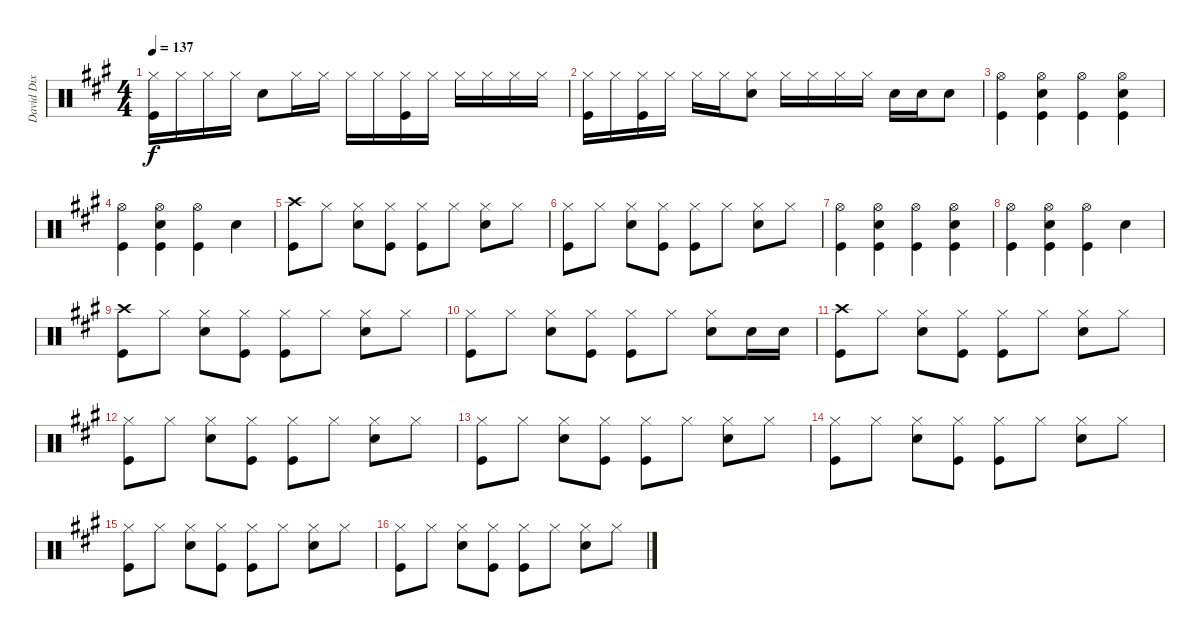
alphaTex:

\track ("David Dix Drums" "David Dix ") {instrument percussion}
\staff {score}
\articulation defaults
\ts (4 4)
\tempo 137
\clef neutral
\ks a
("Hi-Hat (closed)" "Kick (hit)").16{dy f} "Hi-Hat (closed)".16 "Hi-Hat (closed)".16 "Hi-Hat (closed)".16 "Snare (hit) 2".8 "Hi-Hat (closed)".16 "Hi-Hat (closed)".16 "Hi-Hat (closed)".16 "Hi-Hat (closed)".16 ("Hi-Hat (closed)" "Kick (hit)").16 "Hi-Hat (closed)".16 "Hi-Hat (closed)".16 "Hi-Hat (closed)".16 "Hi-Hat (closed)".16 "Hi-Hat (closed)".16 |
("Hi-Hat (closed)" "Kick (hit)").16 "Hi-Hat (closed)".16 ("Hi-Hat (closed)" "Kick (hit)").16 "Hi-Hat (closed)".16 "Hi-Hat (closed)".16 "Hi-Hat (closed)".16 ("Hi-Hat (closed)" "Snare (hit) 2").8 "Hi-Hat (closed)".16 "Hi-Hat (closed)".16 "Hi-Hat (closed)".16 "Hi-Hat (closed)".16 "Snare (hit) 2".16 "Snare (hit) 2".16 "Snare (hit) 2".8 |
("Hi-Hat (open)" "Kick (hit)").4 ("Hi-Hat (open)" "Snare (hit) 2" "Kick (hit)").4 ("Hi-Hat (open)" "Kick (hit)").4 ("Hi-Hat (open)" "Snare (hit) 2" "Kick (hit)").4 |
("Hi-Hat (open)" "Kick (hit)").4 ("Hi-Hat (open)" "Snare (hit) 2" "Kick (hit)").4 ("Hi-Hat (open)" "Kick (hit)").4 "Snare (hit) 2".4 |
("Crash high (hit)" "Kick (hit)").8 "Hi-Hat (closed)".8 ("Hi-Hat (closed)" "Snare (hit) 2").8 ("Hi-Hat (closed)" "Kick (hit)").8 ("Hi-Hat (closed)" "Kick (hit)").8 "Hi-Hat (closed)".8 ("Hi-Hat (closed)" "Snare (hit) 2").8 "Hi-Hat (closed)".8 |
("Hi-Hat (closed)" "Kick (hit)").8 "Hi-Hat (closed)".8 ("Hi-Hat (closed)" "Snare (hit) 2").8 ("Hi-Hat (closed)" "Kick (hit)").8 ("Hi-Hat (closed)" "Kick (hit)").8 "Hi-Hat (closed)".8 ("Hi-Hat (closed)" "Snare (hit) 2").8 "Hi-Hat (closed)".8 |
("Hi-Hat (open)" "Kick (hit)").4 ("Hi-Hat (open)" "Snare (hit) 2" "Kick (hit)").4 ("Hi-Hat (open)" "Kick (hit)").4 ("Hi-Hat (open)" "Snare (hit) 2" "Kick (hit)").4 |
("Hi-Hat (open)" "Kick (hit)").4 ("Hi-Hat (open)" "Snare (hit) 2" "Kick (hit)").4 ("Hi-Hat (open)" "Kick (hit)").4 "Snare (hit) 2".4 |
("Crash high (hit)" "Kick (hit)").8 "Hi-Hat (closed)".8 ("Hi-Hat (closed)" "Snare (hit) 2").8 ("Hi-Hat (closed)" "Kick (hit)").8 ("Hi-Hat (closed)" "Kick (hit)").8 "Hi-Hat (closed)".8 ("Hi-Hat (closed)" "Snare (hit) 2").8 "Hi-Hat (closed)".8 |
("Hi-Hat (closed)" "Kick (hit)").8 "Hi-Hat (closed)".8 ("Hi-Hat (closed)" "Snare (hit) 2").8 ("Hi-Hat (closed)" "Kick (hit)").8 ("Hi-Hat (closed)" "Kick (hit)").8 "Hi-Hat (closed)".8 ("Hi-Hat (closed)" "Snare (hit) 2").8 "Snare (hit) 2".16 "Snare (hit) 2".16 |
("Crash high (hit)" "Kick (hit)").8 "Hi-Hat (closed)".8 ("Hi-Hat (closed)" "Snare (hit) 2").8 ("Hi-Hat (closed)" "Kick (hit)").8 ("Hi-Hat (closed)" "Kick (hit)").8 "Hi-Hat (closed)".8 ("Hi-Hat (closed)" "Snare (hit) 2").8 "Hi-Hat (closed)".8 |
("Hi-Hat (closed)" "Kick (hit)").8 "Hi-Hat (closed)".8 ("Hi-Hat (closed)" "Snare (hit) 2").8 ("Hi-Hat (closed)" "Kick (hit)").8 ("Hi-Hat (closed)" "Kick (hit)").8 "Hi-Hat (closed)".8 ("Hi-Hat (closed)" "Snare (hit) 2").8 "Hi-Hat (closed)".8 |
("Hi-Hat (closed)" "Kick (hit)").8 "Hi-Hat (closed)".8 ("Hi-Hat (closed)" "Snare (hit) 2").8 ("Hi-Hat (closed)" "Kick (hit)").8 ("Hi-Hat (closed)" "Kick (hit)").8 "Hi-Hat (closed)".8 ("Hi-Hat (closed)" "Snare (hit) 2").8 "Hi-Hat (closed)".8 |
("Hi-Hat (closed)" "Kick (hit)").8 "Hi-Hat (closed)".8 ("Hi-Hat (closed)" "Snare (hit) 2").8 ("Hi-Hat (closed)" "Kick (hit)").8 ("Hi-Hat (closed)" "Kick (hit)").8 "Hi-Hat (closed)".8 ("Hi-Hat (closed)" "Snare (hit) 2").8 "Hi-Hat (closed)".8 |
("Hi-Hat (closed)" "Kick (hit)").8 "Hi-Hat (closed)".8 ("Hi-Hat (closed)" "Snare (hit) 2").8 ("Hi-Hat (closed)" "Kick (hit)").8 ("Hi-Hat (closed)" "Kick (hit)").8 "Hi-Hat (closed)".8 ("Hi-Hat (closed)" "Snare (hit) 2").8 "Hi-Hat (closed)".8 |
("Hi-Hat (closed)" "Kick (hit)").8 "Hi-Hat (closed)".8 ("Hi-Hat (closed)" "Snare (hit) 2").8 ("Hi-Hat (closed)" "Kick (hit)").8 ("Hi-Hat (closed)" "Kick (hit)").8 "Hi-Hat (closed)".8 ("Hi-Hat (closed)" "Snare (hit) 2").8 "Hi-Hat (closed)".8
